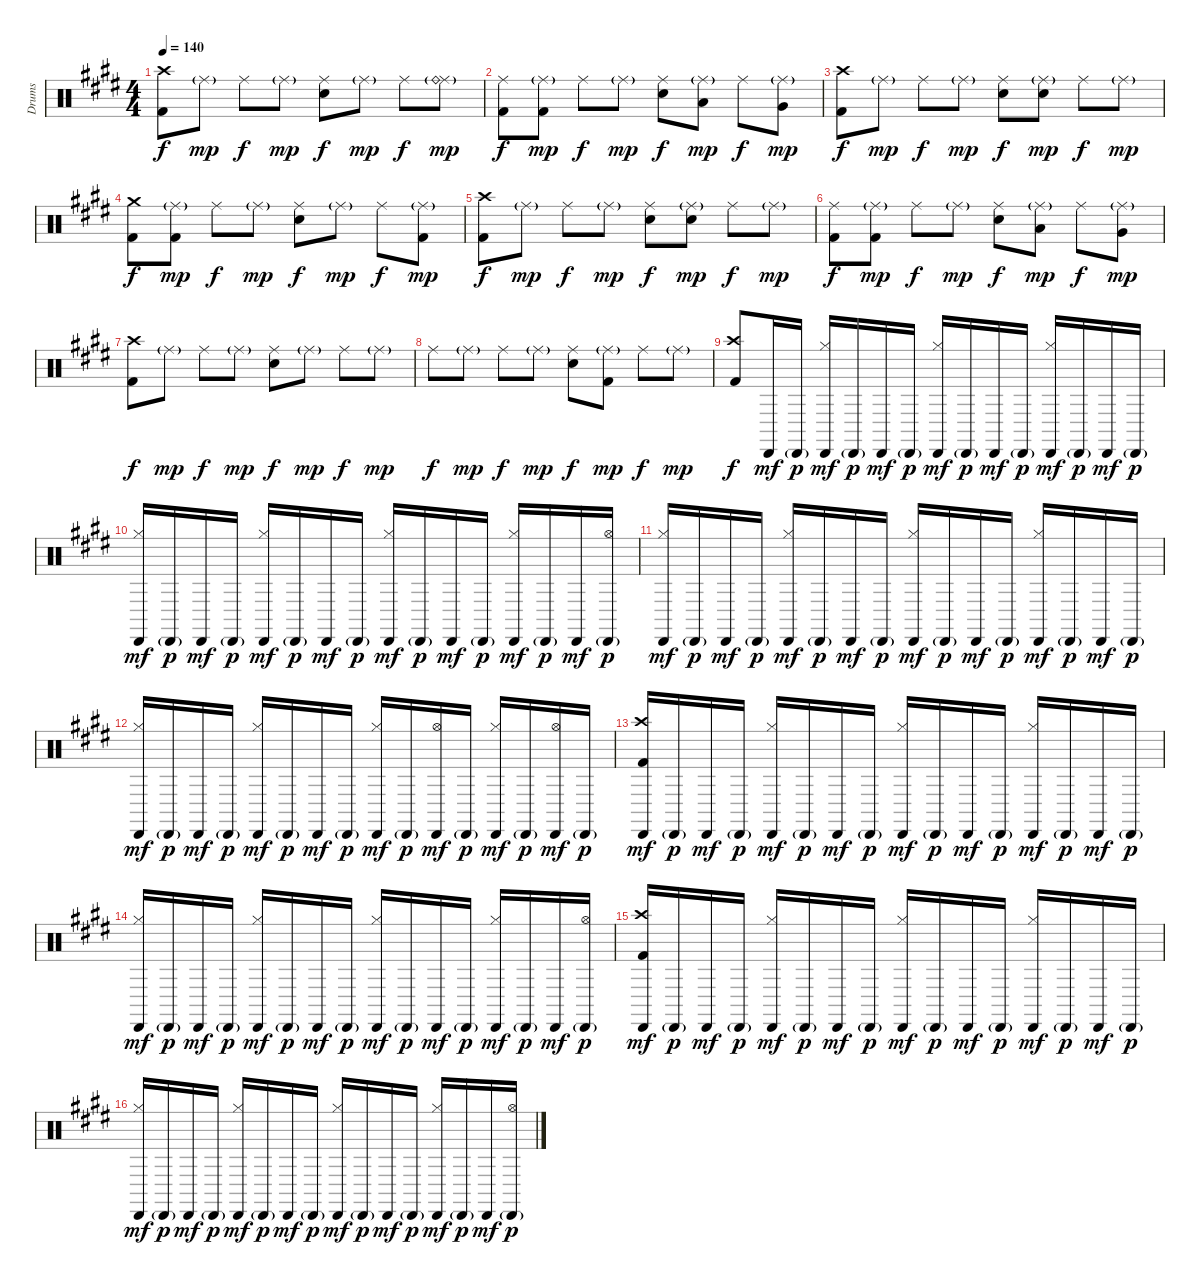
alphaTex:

\track ("Drums" "Drums") {instrument percussion}
\staff {score}
\articulation defaults
\ts (4 4)
\tempo 140
\clef neutral
\ks e
("Crash high (hit)" "Kick (hit) 2").8{dy f} "Ride (middle)"{g}.8{dy mp} "Ride (middle)".8{dy f} "Ride (middle)"{g}.8{dy mp} ("Ride (middle)" "Snare (hit) 2").8{dy f} "Ride (middle)"{g}.8{dy mp} "Ride (middle)".8{dy f} ("Ride (middle)"{g} "Ride (bell)"{g}).8{dy mp} |
("Ride (middle)" "Kick (hit) 2").8{dy f} ("Ride (middle)"{g} "Kick (hit) 2").8{dy mp} "Ride (middle)".8{dy f} "Ride (middle)"{g}.8{dy mp} ("Ride (middle)" "Snare (hit) 2").8{dy f} ("Ride (middle)"{g} "Low Tom (hit)").8{dy mp} "Ride (middle)".8{dy f} ("Ride (middle)"{g} "Very Low Tom (hit)").8{dy mp} |
("Crash high (hit)" "Kick (hit) 2").8{dy f} "Ride (middle)"{g}.8{dy mp} "Ride (middle)".8{dy f} "Ride (middle)"{g}.8{dy mp} ("Ride (middle)" "Snare (hit) 2").8{dy f} ("Ride (middle)"{g} "Snare (hit) 2").8{dy mp} "Ride (middle)".8{dy f} "Ride (middle)"{g}.8{dy mp} |
("Crash medium (hit)" "Kick (hit) 2").8{dy f} ("Ride (middle)"{g} "Kick (hit) 2").8{dy mp} "Ride (middle)".8{dy f} "Ride (middle)"{g}.8{dy mp} ("Ride (middle)" "Snare (hit) 2").8{dy f} "Ride (middle)"{g}.8{dy mp} "Ride (middle)".8{dy f} ("Ride (middle)"{g} "Kick (hit) 2").8{dy mp} |
("Crash high (hit)" "Kick (hit) 2").8{dy f} "Ride (middle)"{g}.8{dy mp} "Ride (middle)".8{dy f} "Ride (middle)"{g}.8{dy mp} ("Ride (middle)" "Snare (hit) 2").8{dy f} ("Ride (middle)"{g} "Snare (hit) 2").8{dy mp} "Ride (middle)".8{dy f} "Ride (middle)"{g}.8{dy mp} |
("Ride (middle)" "Kick (hit) 2").8{dy f} ("Ride (middle)"{g} "Kick (hit) 2").8{dy mp} "Ride (middle)".8{dy f} "Ride (middle)"{g}.8{dy mp} ("Ride (middle)" "Snare (hit) 2").8{dy f} ("Ride (middle)"{g} "Low Tom (hit)").8{dy mp} "Ride (middle)".8{dy f} ("Ride (middle)"{g} "Very Low Tom (hit)").8{dy mp} |
("Crash high (hit)" "Kick (hit) 2").8{dy f} "Ride (middle)"{g}.8{dy mp} "Ride (middle)".8{dy f} "Ride (middle)"{g}.8{dy mp} ("Ride (middle)" "Snare (hit) 2").8{dy f} "Ride (middle)"{g}.8{dy mp} "Ride (middle)".8{dy f} "Ride (middle)"{g}.8{dy mp} |
"Ride (middle)".8{dy f} "Ride (middle)"{g}.8{dy mp} "Ride (middle)".8{dy f} "Ride (middle)"{g}.8{dy mp} ("Ride (middle)" "Snare (hit) 2").8{dy f} ("Ride (middle)"{g} "Kick (hit) 2").8{dy mp} "Ride (middle)".8{dy f} "Ride (middle)"{g}.8{dy mp} |
("Crash high (hit)" "Kick (hit) 2").8{dy f} "Cabasa (hit)".16{dy mf} "Cabasa (hit)"{g}.16{dy p} ("Hi-Hat (closed)" "Cabasa (hit)").16{dy mf} "Cabasa (hit)"{g}.16{dy p} "Cabasa (hit)".16{dy mf} "Cabasa (hit)"{g}.16{dy p} ("Hi-Hat (closed)" "Cabasa (hit)").16{dy mf} "Cabasa (hit)"{g}.16{dy p} "Cabasa (hit)".16{dy mf} "Cabasa (hit)"{g}.16{dy p} ("Hi-Hat (closed)" "Cabasa (hit)").16{dy mf} "Cabasa (hit)"{g}.16{dy p} "Cabasa (hit)".16{dy mf} "Cabasa (hit)"{g}.16{dy p} |
("Hi-Hat (closed)" "Cabasa (hit)").16{dy mf} "Cabasa (hit)"{g}.16{dy p} "Cabasa (hit)".16{dy mf} "Cabasa (hit)"{g}.16{dy p} ("Hi-Hat (closed)" "Cabasa (hit)").16{dy mf} "Cabasa (hit)"{g}.16{dy p} "Cabasa (hit)".16{dy mf} "Cabasa (hit)"{g}.16{dy p} ("Hi-Hat (closed)" "Cabasa (hit)").16{dy mf} "Cabasa (hit)"{g}.16{dy p} "Cabasa (hit)".16{dy mf} "Cabasa (hit)"{g}.16{dy p} ("Hi-Hat (closed)" "Cabasa (hit)").16{dy mf} "Cabasa (hit)"{g}.16{dy p} "Cabasa (hit)".16{dy mf} ("Hi-Hat (open)" "Cabasa (hit)"{g}).16{dy p} |
("Hi-Hat (closed)" "Cabasa (hit)").16{dy mf} "Cabasa (hit)"{g}.16{dy p} "Cabasa (hit)".16{dy mf} "Cabasa (hit)"{g}.16{dy p} ("Hi-Hat (closed)" "Cabasa (hit)").16{dy mf} "Cabasa (hit)"{g}.16{dy p} "Cabasa (hit)".16{dy mf} "Cabasa (hit)"{g}.16{dy p} ("Hi-Hat (closed)" "Cabasa (hit)").16{dy mf} "Cabasa (hit)"{g}.16{dy p} "Cabasa (hit)".16{dy mf} "Cabasa (hit)"{g}.16{dy p} ("Hi-Hat (closed)" "Cabasa (hit)").16{dy mf} "Cabasa (hit)"{g}.16{dy p} "Cabasa (hit)".16{dy mf} "Cabasa (hit)"{g}.16{dy p} |
("Hi-Hat (closed)" "Cabasa (hit)").16{dy mf} "Cabasa (hit)"{g}.16{dy p} "Cabasa (hit)".16{dy mf} "Cabasa (hit)"{g}.16{dy p} ("Hi-Hat (closed)" "Cabasa (hit)").16{dy mf} "Cabasa (hit)"{g}.16{dy p} "Cabasa (hit)".16{dy mf} "Cabasa (hit)"{g}.16{dy p} ("Hi-Hat (closed)" "Cabasa (hit)").16{dy mf} "Cabasa (hit)"{g}.16{dy p} ("Hi-Hat (open)" "Cabasa (hit)").16{dy mf} "Cabasa (hit)"{g}.16{dy p} ("Hi-Hat (closed)" "Cabasa (hit)").16{dy mf} "Cabasa (hit)"{g}.16{dy p} ("Hi-Hat (open)" "Cabasa (hit)").16{dy mf} "Cabasa (hit)"{g}.16{dy p} |
("Crash high (hit)" "Cabasa (hit)" "Kick (hit) 2").16{dy mf} "Cabasa (hit)"{g}.16{dy p} "Cabasa (hit)".16{dy mf} "Cabasa (hit)"{g}.16{dy p} ("Hi-Hat (closed)" "Cabasa (hit)").16{dy mf} "Cabasa (hit)"{g}.16{dy p} "Cabasa (hit)".16{dy mf} "Cabasa (hit)"{g}.16{dy p} ("Hi-Hat (closed)" "Cabasa (hit)").16{dy mf} "Cabasa (hit)"{g}.16{dy p} "Cabasa (hit)".16{dy mf} "Cabasa (hit)"{g}.16{dy p} ("Hi-Hat (closed)" "Cabasa (hit)").16{dy mf} "Cabasa (hit)"{g}.16{dy p} "Cabasa (hit)".16{dy mf} "Cabasa (hit)"{g}.16{dy p} |
("Hi-Hat (closed)" "Cabasa (hit)").16{dy mf} "Cabasa (hit)"{g}.16{dy p} "Cabasa (hit)".16{dy mf} "Cabasa (hit)"{g}.16{dy p} ("Hi-Hat (closed)" "Cabasa (hit)").16{dy mf} "Cabasa (hit)"{g}.16{dy p} "Cabasa (hit)".16{dy mf} "Cabasa (hit)"{g}.16{dy p} ("Hi-Hat (closed)" "Cabasa (hit)").16{dy mf} "Cabasa (hit)"{g}.16{dy p} "Cabasa (hit)".16{dy mf} "Cabasa (hit)"{g}.16{dy p} ("Hi-Hat (closed)" "Cabasa (hit)").16{dy mf} "Cabasa (hit)"{g}.16{dy p} "Cabasa (hit)".16{dy mf} ("Hi-Hat (open)" "Cabasa (hit)"{g}).16{dy p} |
("Crash high (hit)" "Cabasa (hit)" "Kick (hit) 2").16{dy mf} "Cabasa (hit)"{g}.16{dy p} "Cabasa (hit)".16{dy mf} "Cabasa (hit)"{g}.16{dy p} ("Hi-Hat (closed)" "Cabasa (hit)").16{dy mf} "Cabasa (hit)"{g}.16{dy p} "Cabasa (hit)".16{dy mf} "Cabasa (hit)"{g}.16{dy p} ("Hi-Hat (closed)" "Cabasa (hit)").16{dy mf} "Cabasa (hit)"{g}.16{dy p} "Cabasa (hit)".16{dy mf} "Cabasa (hit)"{g}.16{dy p} ("Hi-Hat (closed)" "Cabasa (hit)").16{dy mf} "Cabasa (hit)"{g}.16{dy p} "Cabasa (hit)".16{dy mf} "Cabasa (hit)"{g}.16{dy p} |
("Hi-Hat (closed)" "Cabasa (hit)").16{dy mf} "Cabasa (hit)"{g}.16{dy p} "Cabasa (hit)".16{dy mf} "Cabasa (hit)"{g}.16{dy p} ("Hi-Hat (closed)" "Cabasa (hit)").16{dy mf} "Cabasa (hit)"{g}.16{dy p} "Cabasa (hit)".16{dy mf} "Cabasa (hit)"{g}.16{dy p} ("Hi-Hat (closed)" "Cabasa (hit)").16{dy mf} "Cabasa (hit)"{g}.16{dy p} "Cabasa (hit)".16{dy mf} "Cabasa (hit)"{g}.16{dy p} ("Hi-Hat (closed)" "Cabasa (hit)").16{dy mf} "Cabasa (hit)"{g}.16{dy p} "Cabasa (hit)".16{dy mf} ("Hi-Hat (open)" "Cabasa (hit)"{g}).16{dy p}
